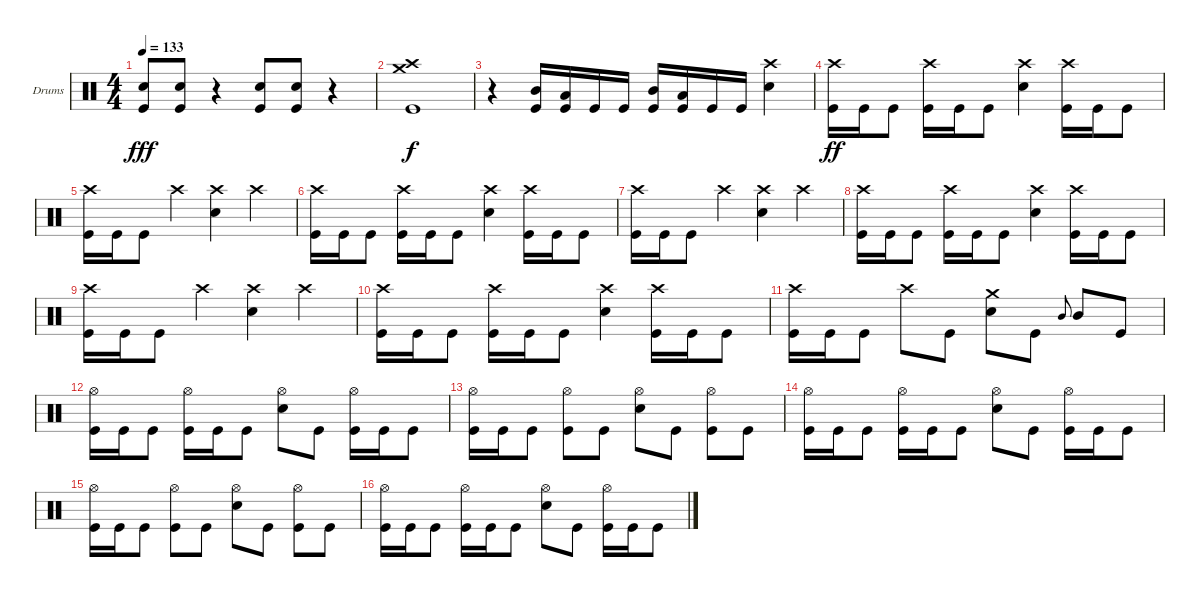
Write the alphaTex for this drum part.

\defaultSystemsLayout 4
\bracketExtendMode groupsimilarinstruments
\firstSystemTrackNameOrientation horizontal
\otherSystemsTrackNameOrientation horizontal
\track ("Drumkit" "Drums") {instrument percussion}
\staff {score}
\articulation defaults
\ts (4 4)
\tempo 133
\clef neutral
\ks c
("Kick (hit)" "Snare (hit) 2").8{dy fff} ("Kick (hit)" "Snare (hit) 2").8 r.4 ("Kick (hit)" "Snare (hit) 2").8 ("Kick (hit)" "Snare (hit) 2").8 r.4 |
("Kick (hit)" "Crash medium (hit)" "Crash high (hit)").1{dy f} |
r.4 ("Kick (hit)" "Mid Tom (hit)").16 ("Kick (hit)" "Low Tom (hit)").16 "Kick (hit)".16 "Kick (hit)".16 ("Kick (hit)" "Mid Tom (hit)").16 ("Kick (hit)" "Low Tom (hit)").16 "Kick (hit)".16 "Kick (hit)".16 ("Snare (hit) 2" "Crash high (hit)").4 |
("Crash high (hit)" "Kick (hit)").16{dy ff} "Kick (hit)".16 "Kick (hit)".8 ("Kick (hit)" "Crash high (hit)").16 "Kick (hit)".16 "Kick (hit)".8 ("Crash high (hit)" "Snare (hit) 2").4 ("Kick (hit)" "Crash high (hit)").16 "Kick (hit)".16 "Kick (hit)".8 |
("Crash high (hit)" "Kick (hit)").16 "Kick (hit)".16 "Kick (hit)".8 "Crash high (hit)".4 ("Crash high (hit)" "Snare (hit) 2").4 "Crash high (hit)".4 |
("Kick (hit)" "Crash high (hit)").16 "Kick (hit)".16 "Kick (hit)".8 ("Kick (hit)" "Crash high (hit)").16 "Kick (hit)".16 "Kick (hit)".8 ("Crash high (hit)" "Snare (hit) 2").4 ("Kick (hit)" "Crash high (hit)").16 "Kick (hit)".16 "Kick (hit)".8 |
("Kick (hit)" "Crash high (hit)").16 "Kick (hit)".16 "Kick (hit)".8 "Crash high (hit)".4 ("Crash high (hit)" "Snare (hit) 2").4 "Crash high (hit)".4 |
("Crash high (hit)" "Kick (hit)").16 "Kick (hit)".16 "Kick (hit)".8 ("Kick (hit)" "Crash high (hit)").16 "Kick (hit)".16 "Kick (hit)".8 ("Crash high (hit)" "Snare (hit) 2").4 ("Kick (hit)" "Crash high (hit)").16 "Kick (hit)".16 "Kick (hit)".8 |
("Crash high (hit)" "Kick (hit)").16 "Kick (hit)".16 "Kick (hit)".8 "Crash high (hit)".4 ("Crash high (hit)" "Snare (hit) 2").4 "Crash high (hit)".4 |
("Kick (hit)" "Crash high (hit)").16 "Kick (hit)".16 "Kick (hit)".8 ("Kick (hit)" "Crash high (hit)").16 "Kick (hit)".16 "Kick (hit)".8 ("Crash high (hit)" "Snare (hit) 2").4 ("Kick (hit)" "Crash high (hit)").16 "Kick (hit)".16 "Kick (hit)".8 |
("Kick (hit)" "Crash high (hit)").16 "Kick (hit)".16 "Kick (hit)".8 "Crash high (hit)".8 "Kick (hit)".8 ("Snare (hit) 2" "Crash medium (hit)").8 "Kick (hit)".8 "Mid Tom (hit)".8{gr onbeat} "Mid Tom (hit)".8 "Kick (hit)".8 |
("Kick (hit)" "Hi-Hat (open)").16 "Kick (hit)".16 "Kick (hit)".8 ("Kick (hit)" "Hi-Hat (open)").16 "Kick (hit)".16 "Kick (hit)".8 ("Snare (hit) 2" "Hi-Hat (open)").8 "Kick (hit)".8 ("Kick (hit)" "Hi-Hat (open)").16 "Kick (hit)".16 "Kick (hit)".8 |
("Kick (hit)" "Hi-Hat (open)").16 "Kick (hit)".16 "Kick (hit)".8 ("Kick (hit)" "Hi-Hat (open)").8 "Kick (hit)".8 ("Snare (hit) 2" "Hi-Hat (open)").8 "Kick (hit)".8 ("Kick (hit)" "Hi-Hat (open)").8 "Kick (hit)".8 |
("Kick (hit)" "Hi-Hat (open)").16 "Kick (hit)".16 "Kick (hit)".8 ("Kick (hit)" "Hi-Hat (open)").16 "Kick (hit)".16 "Kick (hit)".8 ("Snare (hit) 2" "Hi-Hat (open)").8 "Kick (hit)".8 ("Kick (hit)" "Hi-Hat (open)").16 "Kick (hit)".16 "Kick (hit)".8 |
("Kick (hit)" "Hi-Hat (open)").16 "Kick (hit)".16 "Kick (hit)".8 ("Kick (hit)" "Hi-Hat (open)").8 "Kick (hit)".8 ("Snare (hit) 2" "Hi-Hat (open)").8 "Kick (hit)".8 ("Kick (hit)" "Hi-Hat (open)").8 "Kick (hit)".8 |
("Kick (hit)" "Hi-Hat (open)").16 "Kick (hit)".16 "Kick (hit)".8 ("Kick (hit)" "Hi-Hat (open)").16 "Kick (hit)".16 "Kick (hit)".8 ("Snare (hit) 2" "Hi-Hat (open)").8 "Kick (hit)".8 ("Kick (hit)" "Hi-Hat (open)").16 "Kick (hit)".16 "Kick (hit)".8
